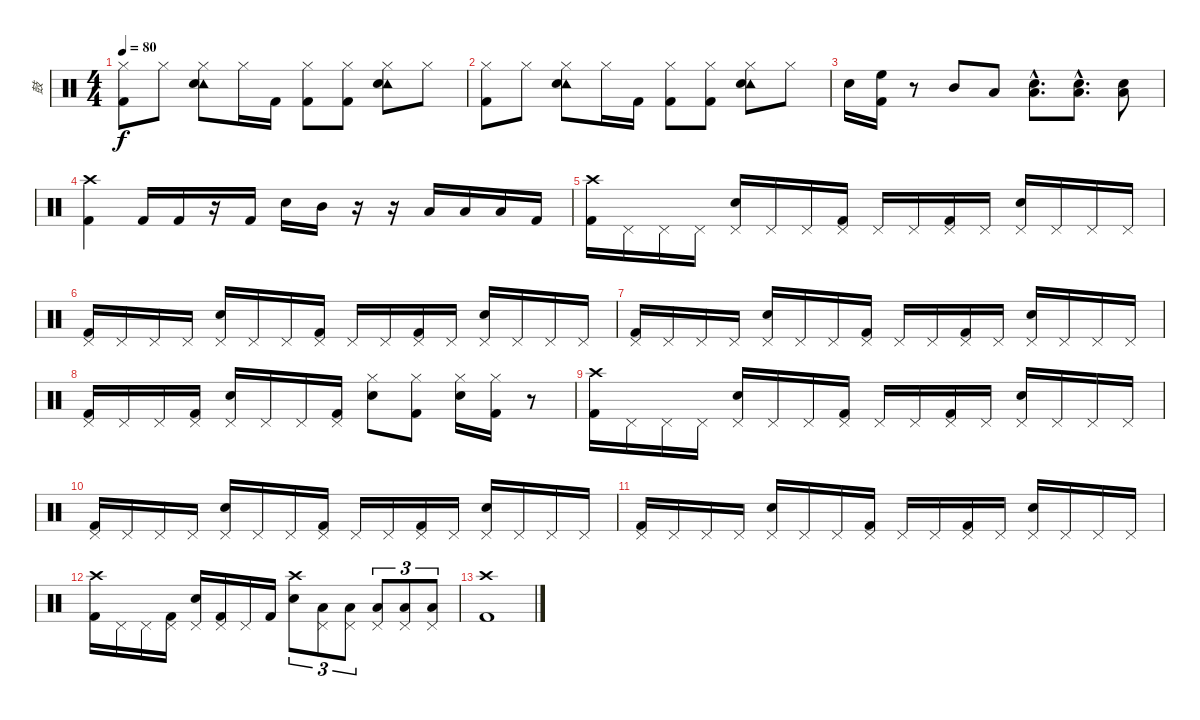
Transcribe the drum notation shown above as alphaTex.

\track ("鼓" "鼓") {instrument percussion}
\staff {score}
\articulation defaults
\ts (4 4)
\tempo 80
\clef neutral
\ks c
("Hi-Hat (closed)" "Kick (hit) 2").8{dy f} "Hi-Hat (closed)".8 ("Hi-Hat (closed)" "Tambourine (hit)" "Electric Snare (hit)").8 "Hi-Hat (closed)".16 "Kick (hit) 2".16 ("Hi-Hat (closed)" "Kick (hit) 2").8 ("Hi-Hat (closed)" "Kick (hit) 2").8 ("Hi-Hat (closed)" "Tambourine (hit)" "Electric Snare (hit)").8 "Hi-Hat (closed)".8 |
("Hi-Hat (closed)" "Kick (hit) 2").8 "Hi-Hat (closed)".8 ("Hi-Hat (closed)" "Tambourine (hit)" "Electric Snare (hit)").8 "Hi-Hat (closed)".16 "Kick (hit) 2".16 ("Hi-Hat (closed)" "Kick (hit) 2").8 ("Hi-Hat (closed)" "Kick (hit) 2").8 ("Hi-Hat (closed)" "Tambourine (hit)" "Electric Snare (hit)").8 "Hi-Hat (closed)".8 |
"Electric Snare (hit)".16 ("High Floor Tom (hit)" "Kick (hit) 2").16 r.8 "Mid Tom (hit)".8 "Low Tom (hit)".8 ("Low Floor Tom (hit)"{hac} "Electric Snare (hit)"{hac}).8{d} ("Low Floor Tom (hit)"{hac} "Electric Snare (hit)"{hac}).8{d} ("Low Floor Tom (hit)" "Electric Snare (hit)").8 |
("Crash high (hit)" "Kick (hit) 2").4 "Kick (hit) 2".16 "Kick (hit) 2".16 r.16 "Kick (hit) 2".16 "Electric Snare (hit)".16 "Mid Tom (hit)".16 r.16 r.16 "Low Tom (hit)".16 "Low Floor Tom (hit)".16 "Low Floor Tom (hit)".16 "Kick (hit) 2".16 |
("Crash high (hit)" "Kick (hit) 2").16 "Pedal Hi-Hat (hit)".16 "Pedal Hi-Hat (hit)".16 "Pedal Hi-Hat (hit)".16 ("Pedal Hi-Hat (hit)" "Electric Snare (hit)").16 "Pedal Hi-Hat (hit)".16 "Pedal Hi-Hat (hit)".16 ("Pedal Hi-Hat (hit)" "Kick (hit) 2").16 "Pedal Hi-Hat (hit)".16 "Pedal Hi-Hat (hit)".16 ("Pedal Hi-Hat (hit)" "Kick (hit) 2").16 "Pedal Hi-Hat (hit)".16 ("Pedal Hi-Hat (hit)" "Electric Snare (hit)").16 "Pedal Hi-Hat (hit)".16 "Pedal Hi-Hat (hit)".16 "Pedal Hi-Hat (hit)".16 |
("Pedal Hi-Hat (hit)" "Kick (hit) 2").16 "Pedal Hi-Hat (hit)".16 "Pedal Hi-Hat (hit)".16 "Pedal Hi-Hat (hit)".16 ("Pedal Hi-Hat (hit)" "Electric Snare (hit)").16 "Pedal Hi-Hat (hit)".16 "Pedal Hi-Hat (hit)".16 ("Pedal Hi-Hat (hit)" "Kick (hit) 2").16 "Pedal Hi-Hat (hit)".16 "Pedal Hi-Hat (hit)".16 ("Pedal Hi-Hat (hit)" "Kick (hit) 2").16 "Pedal Hi-Hat (hit)".16 ("Pedal Hi-Hat (hit)" "Electric Snare (hit)").16 "Pedal Hi-Hat (hit)".16 "Pedal Hi-Hat (hit)".16 "Pedal Hi-Hat (hit)".16 |
("Pedal Hi-Hat (hit)" "Kick (hit) 2").16 "Pedal Hi-Hat (hit)".16 "Pedal Hi-Hat (hit)".16 "Pedal Hi-Hat (hit)".16 ("Pedal Hi-Hat (hit)" "Electric Snare (hit)").16 "Pedal Hi-Hat (hit)".16 "Pedal Hi-Hat (hit)".16 ("Pedal Hi-Hat (hit)" "Kick (hit) 2").16 "Pedal Hi-Hat (hit)".16 "Pedal Hi-Hat (hit)".16 ("Pedal Hi-Hat (hit)" "Kick (hit) 2").16 "Pedal Hi-Hat (hit)".16 ("Pedal Hi-Hat (hit)" "Electric Snare (hit)").16 "Pedal Hi-Hat (hit)".16 "Pedal Hi-Hat (hit)".16 "Pedal Hi-Hat (hit)".16 |
("Pedal Hi-Hat (hit)" "Kick (hit) 2").16 "Pedal Hi-Hat (hit)".16 "Pedal Hi-Hat (hit)".16 ("Pedal Hi-Hat (hit)" "Kick (hit) 2").16 ("Pedal Hi-Hat (hit)" "Electric Snare (hit)").16 "Pedal Hi-Hat (hit)".16 "Pedal Hi-Hat (hit)".16 ("Pedal Hi-Hat (hit)" "Kick (hit) 2").16 ("Hi-Hat (closed)" "Electric Snare (hit)").8 ("Hi-Hat (closed)" "Kick (hit) 2").8 ("Hi-Hat (closed)" "Electric Snare (hit)").16 ("Hi-Hat (closed)" "Kick (hit) 2").16 r.8 |
("Crash high (hit)" "Kick (hit) 2").16 "Pedal Hi-Hat (hit)".16 "Pedal Hi-Hat (hit)".16 "Pedal Hi-Hat (hit)".16 ("Pedal Hi-Hat (hit)" "Electric Snare (hit)").16 "Pedal Hi-Hat (hit)".16 "Pedal Hi-Hat (hit)".16 ("Pedal Hi-Hat (hit)" "Kick (hit) 2").16 "Pedal Hi-Hat (hit)".16 "Pedal Hi-Hat (hit)".16 ("Pedal Hi-Hat (hit)" "Kick (hit) 2").16 "Pedal Hi-Hat (hit)".16 ("Pedal Hi-Hat (hit)" "Electric Snare (hit)").16 "Pedal Hi-Hat (hit)".16 "Pedal Hi-Hat (hit)".16 "Pedal Hi-Hat (hit)".16 |
("Pedal Hi-Hat (hit)" "Kick (hit) 2").16 "Pedal Hi-Hat (hit)".16 "Pedal Hi-Hat (hit)".16 "Pedal Hi-Hat (hit)".16 ("Pedal Hi-Hat (hit)" "Electric Snare (hit)").16 "Pedal Hi-Hat (hit)".16 "Pedal Hi-Hat (hit)".16 ("Pedal Hi-Hat (hit)" "Kick (hit) 2").16 "Pedal Hi-Hat (hit)".16 "Pedal Hi-Hat (hit)".16 ("Pedal Hi-Hat (hit)" "Kick (hit) 2").16 "Pedal Hi-Hat (hit)".16 ("Pedal Hi-Hat (hit)" "Electric Snare (hit)").16 "Pedal Hi-Hat (hit)".16 "Pedal Hi-Hat (hit)".16 "Pedal Hi-Hat (hit)".16 |
("Pedal Hi-Hat (hit)" "Kick (hit) 2").16 "Pedal Hi-Hat (hit)".16 "Pedal Hi-Hat (hit)".16 "Pedal Hi-Hat (hit)".16 ("Pedal Hi-Hat (hit)" "Electric Snare (hit)").16 "Pedal Hi-Hat (hit)".16 "Pedal Hi-Hat (hit)".16 ("Pedal Hi-Hat (hit)" "Kick (hit) 2").16 "Pedal Hi-Hat (hit)".16 "Pedal Hi-Hat (hit)".16 ("Pedal Hi-Hat (hit)" "Kick (hit) 2").16 "Pedal Hi-Hat (hit)".16 ("Pedal Hi-Hat (hit)" "Electric Snare (hit)").16 "Pedal Hi-Hat (hit)".16 "Pedal Hi-Hat (hit)".16 "Pedal Hi-Hat (hit)".16 |
("Crash high (hit)" "Kick (hit) 2").16 "Pedal Hi-Hat (hit)".16 "Pedal Hi-Hat (hit)".16 ("Pedal Hi-Hat (hit)" "Kick (hit) 2").16 ("Pedal Hi-Hat (hit)" "Electric Snare (hit)").16 ("Pedal Hi-Hat (hit)" "Kick (hit) 2").16 "Pedal Hi-Hat (hit)".16 "Kick (hit) 2".16 ("Crash high (hit)" "Electric Snare (hit)").8{tu (3 2)} ("Pedal Hi-Hat (hit)" "Low Floor Tom (hit)").8{tu (3 2)} ("Pedal Hi-Hat (hit)" "Low Floor Tom (hit)").8{tu (3 2)} ("Pedal Hi-Hat (hit)" "Low Tom (hit)").8{tu (3 2)} ("Pedal Hi-Hat (hit)" "Low Floor Tom (hit)").8{tu (3 2)} ("Pedal Hi-Hat (hit)" "Low Floor Tom (hit)").8{tu (3 2)} |
("Crash high (hit)" "Kick (hit) 2").1
